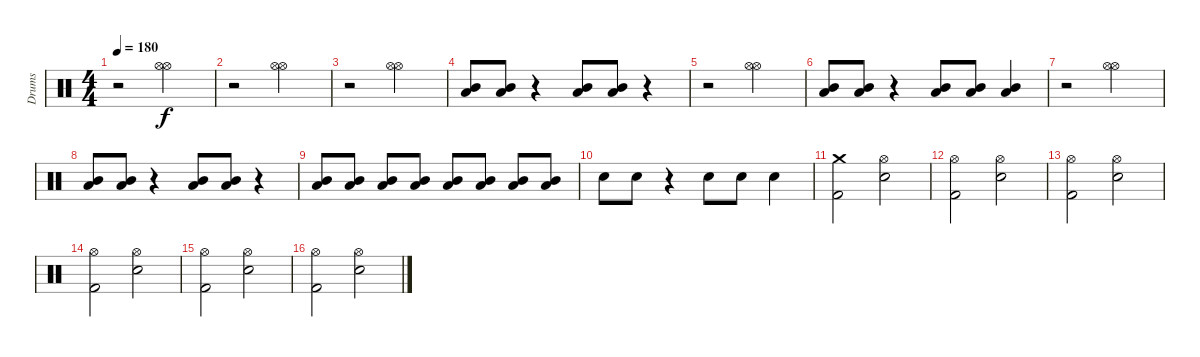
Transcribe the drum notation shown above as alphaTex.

\track ("Drums" "Drums") {instrument percussion}
\staff {score}
\articulation defaults
\ts (4 4)
\tempo 180
\clef neutral
\ks c
r.2{dy f} ("Hi-Hat (open)" "Hi-Hat (open)").2 |
r.2 ("Hi-Hat (open)" "Hi-Hat (open)").2 |
r.2 ("Hi-Hat (open)" "Hi-Hat (open)").2 |
("Low Tom (hit)" "Mid Tom (hit)").8 ("Low Tom (hit)" "Mid Tom (hit)").8 r.4 ("Low Tom (hit)" "Mid Tom (hit)").8 ("Low Tom (hit)" "Mid Tom (hit)").8 r.4 |
r.2 ("Hi-Hat (open)" "Hi-Hat (open)").2 |
("Low Tom (hit)" "Mid Tom (hit)").8 ("Low Tom (hit)" "Mid Tom (hit)").8 r.4 ("Low Tom (hit)" "Mid Tom (hit)").8 ("Low Tom (hit)" "Mid Tom (hit)").8 ("Low Tom (hit)" "Mid Tom (hit)").4 |
r.2 ("Hi-Hat (open)" "Hi-Hat (open)").2 |
("Low Tom (hit)" "Mid Tom (hit)").8 ("Low Tom (hit)" "Mid Tom (hit)").8 r.4 ("Low Tom (hit)" "Mid Tom (hit)").8 ("Low Tom (hit)" "Mid Tom (hit)").8 r.4 |
("Low Tom (hit)" "Mid Tom (hit)").8{volume 11} ("Low Tom (hit)" "Mid Tom (hit)").8{volume 16} ("Low Tom (hit)" "Mid Tom (hit)").8 ("Low Tom (hit)" "Mid Tom (hit)").8 ("Low Tom (hit)" "Mid Tom (hit)").8 ("Low Tom (hit)" "Mid Tom (hit)").8 ("Low Tom (hit)" "Mid Tom (hit)").8 ("Low Tom (hit)" "Mid Tom (hit)").8 |
"Electric Snare (hit)".8 "Electric Snare (hit)".8 r.4 "Electric Snare (hit)".8 "Electric Snare (hit)".8 "Electric Snare (hit)".4 |
("Crash medium (hit)" "Kick (hit) 2").2 ("Hi-Hat (open)" "Electric Snare (hit)").2 |
("Hi-Hat (open)" "Kick (hit) 2").2 ("Hi-Hat (open)" "Electric Snare (hit)").2 |
("Hi-Hat (open)" "Kick (hit) 2").2 ("Hi-Hat (open)" "Electric Snare (hit)").2 |
("Hi-Hat (open)" "Kick (hit) 2").2 ("Hi-Hat (open)" "Electric Snare (hit)").2 |
("Hi-Hat (open)" "Kick (hit) 2").2 ("Hi-Hat (open)" "Electric Snare (hit)").2 |
("Hi-Hat (open)" "Kick (hit) 2").2 ("Hi-Hat (open)" "Electric Snare (hit)").2
